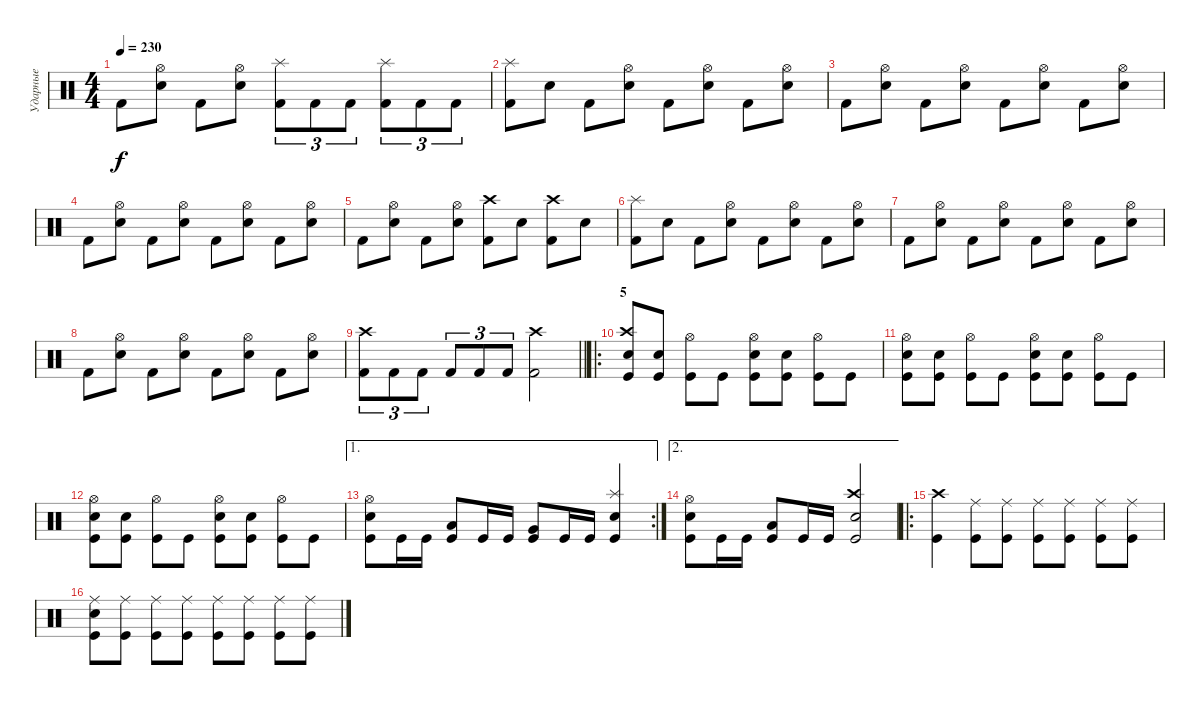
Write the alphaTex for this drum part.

\track ("Ударные" "Ударные") {instrument percussion}
\staff {score}
\articulation defaults
\ts (4 4)
\tempo 230
\clef neutral
\ks c "Kick (hit) 2".8{dy f}
("Hi-Hat (open)" "Snare (hit) 2").8 "Kick (hit) 2".8 ("Hi-Hat (open)" "Snare (hit) 2").8 ("Splash (hit)" "Kick (hit) 2").8{tu (3 2)} "Kick (hit) 2".8{tu (3 2)} "Kick (hit) 2".8{tu (3 2)} ("Splash (hit)" "Kick (hit) 2").8{tu (3 2)} "Kick (hit) 2".8{tu (3 2)} "Kick (hit) 2".8{tu (3 2)} |
("Splash (hit)" "Kick (hit) 2").8 "Snare (hit) 2".8 "Kick (hit) 2".8 ("Hi-Hat (open)" "Snare (hit) 2").8 "Kick (hit) 2".8 ("Hi-Hat (open)" "Snare (hit) 2").8 "Kick (hit) 2".8 ("Hi-Hat (open)" "Snare (hit) 2").8 |
"Kick (hit) 2".8 ("Hi-Hat (open)" "Snare (hit) 2").8 "Kick (hit) 2".8 ("Hi-Hat (open)" "Snare (hit) 2").8 "Kick (hit) 2".8 ("Hi-Hat (open)" "Snare (hit) 2").8 "Kick (hit) 2".8 ("Hi-Hat (open)" "Snare (hit) 2").8 |
"Kick (hit) 2".8 ("Hi-Hat (open)" "Snare (hit) 2").8 "Kick (hit) 2".8 ("Hi-Hat (open)" "Snare (hit) 2").8 "Kick (hit) 2".8 ("Hi-Hat (open)" "Snare (hit) 2").8 "Kick (hit) 2".8 ("Hi-Hat (open)" "Snare (hit) 2").8 |
"Kick (hit) 2".8 ("Hi-Hat (open)" "Snare (hit) 2").8 "Kick (hit) 2".8 ("Hi-Hat (open)" "Snare (hit) 2").8 ("Crash high (hit)" "Kick (hit) 2").8 "Snare (hit) 2".8 ("Crash high (hit)" "Kick (hit) 2").8 "Snare (hit) 2".8 |
("Splash (hit)" "Kick (hit) 2").8 "Snare (hit) 2".8 "Kick (hit) 2".8 ("Hi-Hat (open)" "Snare (hit) 2").8 "Kick (hit) 2".8 ("Hi-Hat (open)" "Snare (hit) 2").8 "Kick (hit) 2".8 ("Hi-Hat (open)" "Snare (hit) 2").8 |
"Kick (hit) 2".8 ("Hi-Hat (open)" "Snare (hit) 2").8 "Kick (hit) 2".8 ("Hi-Hat (open)" "Snare (hit) 2").8 "Kick (hit) 2".8 ("Hi-Hat (open)" "Snare (hit) 2").8 "Kick (hit) 2".8 ("Hi-Hat (open)" "Snare (hit) 2").8 |
"Kick (hit) 2".8 ("Hi-Hat (open)" "Snare (hit) 2").8 "Kick (hit) 2".8 ("Hi-Hat (open)" "Snare (hit) 2").8 "Kick (hit) 2".8 ("Hi-Hat (open)" "Snare (hit) 2").8 "Kick (hit) 2".8 ("Hi-Hat (open)" "Snare (hit) 2").8 |
\barLineRight lightlight
("Crash high (hit)" "Kick (hit) 2").8{tu (3 2)} "Kick (hit) 2".8{tu (3 2)} "Kick (hit) 2".8{tu (3 2)} "Kick (hit) 2".8{tu (3 2)} "Kick (hit) 2".8{tu (3 2)} "Kick (hit) 2".8{tu (3 2)} ("Crash high (hit)" "Kick (hit) 2").2 |
\ro
\section ("" "5")
("Kick (hit)" "Snare (hit) 2" "Crash high (hit)").8 ("Kick (hit)" "Snare (hit) 2").8 ("Kick (hit)" "Hi-Hat (open)").8 "Kick (hit)".8 ("Kick (hit)" "Hi-Hat (open)" "Snare (hit) 2").8 ("Kick (hit)" "Snare (hit) 2").8 ("Kick (hit)" "Hi-Hat (open)").8 "Kick (hit)".8 |
("Kick (hit)" "Snare (hit) 2" "Hi-Hat (open)").8 ("Kick (hit)" "Snare (hit) 2").8 ("Kick (hit)" "Hi-Hat (open)").8 "Kick (hit)".8 ("Kick (hit)" "Hi-Hat (open)" "Snare (hit) 2").8 ("Kick (hit)" "Snare (hit) 2").8 ("Kick (hit)" "Hi-Hat (open)").8 "Kick (hit)".8 |
("Kick (hit)" "Snare (hit) 2" "Hi-Hat (open)").8 ("Kick (hit)" "Snare (hit) 2").8 ("Kick (hit)" "Hi-Hat (open)").8 "Kick (hit)".8 ("Kick (hit)" "Hi-Hat (open)" "Snare (hit) 2").8 ("Kick (hit)" "Snare (hit) 2").8 ("Kick (hit)" "Hi-Hat (open)").8 "Kick (hit)".8 |
\ae 1
\rc 2
("Kick (hit)" "Snare (hit) 2" "Hi-Hat (open)").8 "Kick (hit)".16 "Kick (hit)".16 ("Kick (hit)" "Low Tom (hit)").8 "Kick (hit)".16 "Kick (hit)".16 ("Kick (hit)" "Very Low Tom (hit)").8 "Kick (hit)".16 "Kick (hit)".16 ("Kick (hit)" "Snare (hit) 2" "Splash (hit)").4 |
\ae 2
("Kick (hit)" "Snare (hit) 2" "Hi-Hat (open)").8 "Kick (hit)".16 "Kick (hit)".16 ("Kick (hit)" "Low Tom (hit)").8 "Kick (hit)".16 "Kick (hit)".16 ("Kick (hit)" "Snare (hit) 2" "Crash high (hit)").2 |
\ro
("Kick (hit)" "Crash high (hit)").4 ("Ride (middle)" "Kick (hit)").8 ("Ride (middle)" "Kick (hit)").8 ("Ride (middle)" "Kick (hit)").8 ("Ride (middle)" "Kick (hit)").8 ("Ride (middle)" "Kick (hit)").8 ("Ride (middle)" "Kick (hit)").8 |
("Ride (middle)" "Kick (hit)" "Snare (hit) 2").8 ("Ride (middle)" "Kick (hit)").8 ("Ride (middle)" "Kick (hit)").8 ("Ride (middle)" "Kick (hit)").8 ("Ride (middle)" "Kick (hit)").8 ("Ride (middle)" "Kick (hit)").8 ("Ride (middle)" "Kick (hit)").8 ("Ride (middle)" "Kick (hit)").8
